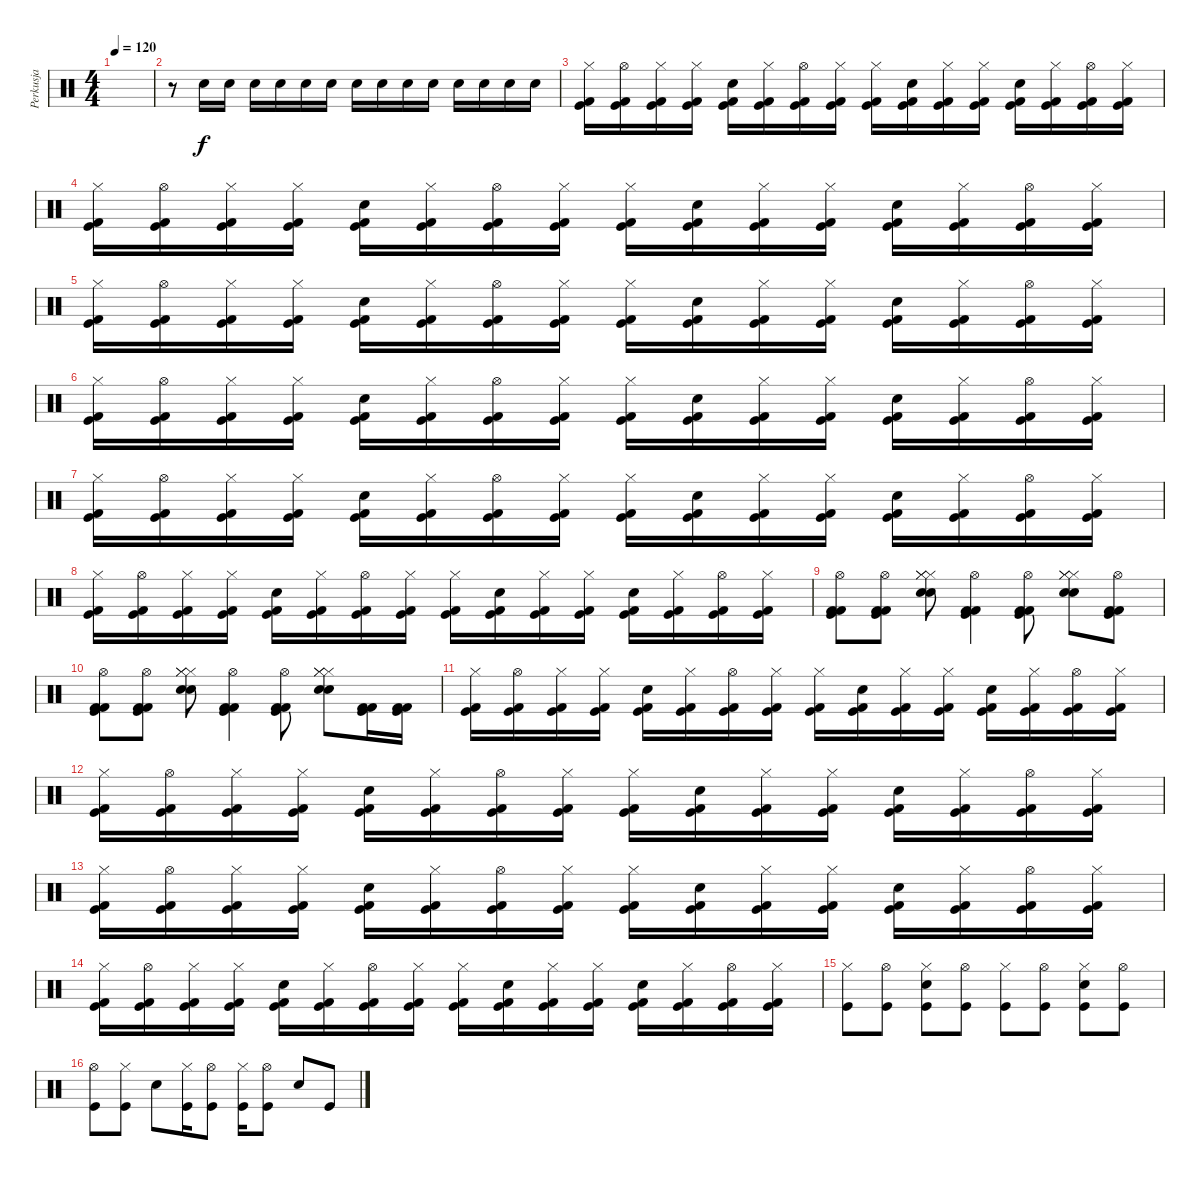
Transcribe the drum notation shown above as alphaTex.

\track ("Perkusja" "Perkusja") {instrument percussion}
\staff {score}
\articulation defaults
\ts (4 4)
\tempo 120
\clef neutral
\ks c
|
r.8 "Snare (hit) 2".16 "Snare (hit) 2".16 "Snare (hit) 2".16 "Snare (hit) 2".16 "Snare (hit) 2".16 "Snare (hit) 2".16 "Snare (hit) 2".16 "Snare (hit) 2".16 "Snare (hit) 2".16 "Snare (hit) 2".16 "Snare (hit) 2".16 "Snare (hit) 2".16 "Snare (hit) 2".16 "Snare (hit) 2".16 |
("Hi-Hat (closed)" "Kick (hit) 2" "Kick (hit)").16 ("Hi-Hat (open)" "Kick (hit) 2" "Kick (hit)").16 ("Hi-Hat (closed)" "Kick (hit) 2" "Kick (hit)").16 ("Hi-Hat (closed)" "Kick (hit) 2" "Kick (hit)").16 ("Snare (hit) 2" "Kick (hit) 2" "Kick (hit)").16 ("Hi-Hat (closed)" "Kick (hit) 2" "Kick (hit)").16 ("Hi-Hat (open)" "Kick (hit) 2" "Kick (hit)").16 ("Hi-Hat (closed)" "Kick (hit) 2" "Kick (hit)").16 ("Hi-Hat (closed)" "Kick (hit) 2" "Kick (hit)").16 ("Snare (hit) 2" "Kick (hit) 2" "Kick (hit)").16 ("Hi-Hat (closed)" "Kick (hit) 2" "Kick (hit)").16 ("Hi-Hat (closed)" "Kick (hit) 2" "Kick (hit)").16 ("Snare (hit) 2" "Kick (hit) 2" "Kick (hit)").16 ("Hi-Hat (closed)" "Kick (hit) 2" "Kick (hit)").16 ("Hi-Hat (open)" "Kick (hit) 2" "Kick (hit)").16 ("Hi-Hat (closed)" "Kick (hit) 2" "Kick (hit)").16 |
("Hi-Hat (closed)" "Kick (hit) 2" "Kick (hit)").16 ("Hi-Hat (open)" "Kick (hit) 2" "Kick (hit)").16 ("Hi-Hat (closed)" "Kick (hit) 2" "Kick (hit)").16 ("Hi-Hat (closed)" "Kick (hit) 2" "Kick (hit)").16 ("Snare (hit) 2" "Kick (hit) 2" "Kick (hit)").16 ("Hi-Hat (closed)" "Kick (hit) 2" "Kick (hit)").16 ("Hi-Hat (open)" "Kick (hit) 2" "Kick (hit)").16 ("Hi-Hat (closed)" "Kick (hit) 2" "Kick (hit)").16 ("Hi-Hat (closed)" "Kick (hit) 2" "Kick (hit)").16 ("Snare (hit) 2" "Kick (hit) 2" "Kick (hit)").16 ("Hi-Hat (closed)" "Kick (hit) 2" "Kick (hit)").16 ("Hi-Hat (closed)" "Kick (hit) 2" "Kick (hit)").16 ("Snare (hit) 2" "Kick (hit) 2" "Kick (hit)").16 ("Hi-Hat (closed)" "Kick (hit) 2" "Kick (hit)").16 ("Hi-Hat (open)" "Kick (hit) 2" "Kick (hit)").16 ("Hi-Hat (closed)" "Kick (hit) 2" "Kick (hit)").16 |
("Hi-Hat (closed)" "Kick (hit) 2" "Kick (hit)").16 ("Hi-Hat (open)" "Kick (hit) 2" "Kick (hit)").16 ("Hi-Hat (closed)" "Kick (hit) 2" "Kick (hit)").16 ("Hi-Hat (closed)" "Kick (hit) 2" "Kick (hit)").16 ("Snare (hit) 2" "Kick (hit) 2" "Kick (hit)").16 ("Hi-Hat (closed)" "Kick (hit) 2" "Kick (hit)").16 ("Hi-Hat (open)" "Kick (hit) 2" "Kick (hit)").16 ("Hi-Hat (closed)" "Kick (hit) 2" "Kick (hit)").16 ("Hi-Hat (closed)" "Kick (hit) 2" "Kick (hit)").16 ("Snare (hit) 2" "Kick (hit) 2" "Kick (hit)").16 ("Hi-Hat (closed)" "Kick (hit) 2" "Kick (hit)").16 ("Hi-Hat (closed)" "Kick (hit) 2" "Kick (hit)").16 ("Snare (hit) 2" "Kick (hit) 2" "Kick (hit)").16 ("Hi-Hat (closed)" "Kick (hit) 2" "Kick (hit)").16 ("Hi-Hat (open)" "Kick (hit) 2" "Kick (hit)").16 ("Hi-Hat (closed)" "Kick (hit) 2" "Kick (hit)").16 |
("Hi-Hat (closed)" "Kick (hit) 2" "Kick (hit)").16 ("Hi-Hat (open)" "Kick (hit) 2" "Kick (hit)").16 ("Hi-Hat (closed)" "Kick (hit) 2" "Kick (hit)").16 ("Hi-Hat (closed)" "Kick (hit) 2" "Kick (hit)").16 ("Snare (hit) 2" "Kick (hit) 2" "Kick (hit)").16 ("Hi-Hat (closed)" "Kick (hit) 2" "Kick (hit)").16 ("Hi-Hat (open)" "Kick (hit) 2" "Kick (hit)").16 ("Hi-Hat (closed)" "Kick (hit) 2" "Kick (hit)").16 ("Hi-Hat (closed)" "Kick (hit) 2" "Kick (hit)").16 ("Snare (hit) 2" "Kick (hit) 2" "Kick (hit)").16 ("Hi-Hat (closed)" "Kick (hit) 2" "Kick (hit)").16 ("Hi-Hat (closed)" "Kick (hit) 2" "Kick (hit)").16 ("Snare (hit) 2" "Kick (hit) 2" "Kick (hit)").16 ("Hi-Hat (closed)" "Kick (hit) 2" "Kick (hit)").16 ("Hi-Hat (open)" "Kick (hit) 2" "Kick (hit)").16 ("Hi-Hat (closed)" "Kick (hit) 2" "Kick (hit)").16 |
("Hi-Hat (closed)" "Kick (hit) 2" "Kick (hit)").16 ("Hi-Hat (open)" "Kick (hit) 2" "Kick (hit)").16 ("Hi-Hat (closed)" "Kick (hit) 2" "Kick (hit)").16 ("Hi-Hat (closed)" "Kick (hit) 2" "Kick (hit)").16 ("Snare (hit) 2" "Kick (hit) 2" "Kick (hit)").16 ("Hi-Hat (closed)" "Kick (hit) 2" "Kick (hit)").16 ("Hi-Hat (open)" "Kick (hit) 2" "Kick (hit)").16 ("Hi-Hat (closed)" "Kick (hit) 2" "Kick (hit)").16 ("Hi-Hat (closed)" "Kick (hit) 2" "Kick (hit)").16 ("Snare (hit) 2" "Kick (hit) 2" "Kick (hit)").16 ("Hi-Hat (closed)" "Kick (hit) 2" "Kick (hit)").16 ("Hi-Hat (closed)" "Kick (hit) 2" "Kick (hit)").16 ("Snare (hit) 2" "Kick (hit) 2" "Kick (hit)").16 ("Hi-Hat (closed)" "Kick (hit) 2" "Kick (hit)").16 ("Hi-Hat (open)" "Kick (hit) 2" "Kick (hit)").16 ("Hi-Hat (closed)" "Kick (hit) 2" "Kick (hit)").16 |
("Hi-Hat (closed)" "Kick (hit) 2" "Kick (hit)").16 ("Hi-Hat (open)" "Kick (hit) 2" "Kick (hit)").16 ("Hi-Hat (closed)" "Kick (hit) 2" "Kick (hit)").16 ("Hi-Hat (closed)" "Kick (hit) 2" "Kick (hit)").16 ("Snare (hit) 2" "Kick (hit) 2" "Kick (hit)").16 ("Hi-Hat (closed)" "Kick (hit) 2" "Kick (hit)").16 ("Hi-Hat (open)" "Kick (hit) 2" "Kick (hit)").16 ("Hi-Hat (closed)" "Kick (hit) 2" "Kick (hit)").16 ("Hi-Hat (closed)" "Kick (hit) 2" "Kick (hit)").16 ("Snare (hit) 2" "Kick (hit) 2" "Kick (hit)").16 ("Hi-Hat (closed)" "Kick (hit) 2" "Kick (hit)").16 ("Hi-Hat (closed)" "Kick (hit) 2" "Kick (hit)").16 ("Snare (hit) 2" "Kick (hit) 2" "Kick (hit)").16 ("Hi-Hat (closed)" "Kick (hit) 2" "Kick (hit)").16 ("Hi-Hat (open)" "Kick (hit) 2" "Kick (hit)").16 ("Hi-Hat (closed)" "Kick (hit) 2" "Kick (hit)").16 |
("Hi-Hat (open)" "Kick (hit) 2" "Kick (hit)" "Kick (hit) 2").8 ("Hi-Hat (open)" "Kick (hit) 2" "Kick (hit)" "Kick (hit) 2").8 ("Hi-Hat (closed)" "Hi-Hat (closed)" "Snare (hit) 2" "Snare (hit) 2" "Hi-Hat (closed)").8 ("Hi-Hat (open)" "Kick (hit) 2" "Kick (hit)" "Kick (hit) 2").4 ("Hi-Hat (open)" "Kick (hit) 2" "Kick (hit)" "Kick (hit) 2").8 ("Hi-Hat (closed)" "Hi-Hat (closed)" "Snare (hit) 2" "Snare (hit) 2" "Hi-Hat (closed)").8 ("Hi-Hat (open)" "Kick (hit) 2" "Kick (hit)" "Kick (hit) 2").8 |
("Hi-Hat (open)" "Kick (hit) 2" "Kick (hit)" "Kick (hit) 2").8 ("Hi-Hat (open)" "Kick (hit) 2" "Kick (hit)" "Kick (hit) 2").8 ("Hi-Hat (closed)" "Hi-Hat (closed)" "Snare (hit) 2" "Snare (hit) 2" "Hi-Hat (closed)").8 ("Hi-Hat (open)" "Kick (hit) 2" "Kick (hit)" "Kick (hit) 2").4 ("Hi-Hat (open)" "Kick (hit) 2" "Kick (hit)" "Kick (hit) 2").8 ("Hi-Hat (closed)" "Hi-Hat (closed)" "Snare (hit) 2" "Snare (hit) 2" "Hi-Hat (closed)").8 ("Kick (hit) 2" "Kick (hit)" "Kick (hit) 2").16 ("Kick (hit) 2" "Kick (hit)" "Kick (hit) 2").16 |
("Hi-Hat (closed)" "Kick (hit) 2" "Kick (hit)").16 ("Hi-Hat (open)" "Kick (hit) 2" "Kick (hit)").16 ("Hi-Hat (closed)" "Kick (hit) 2" "Kick (hit)").16 ("Hi-Hat (closed)" "Kick (hit) 2" "Kick (hit)").16 ("Snare (hit) 2" "Kick (hit) 2" "Kick (hit)").16 ("Hi-Hat (closed)" "Kick (hit) 2" "Kick (hit)").16 ("Hi-Hat (open)" "Kick (hit) 2" "Kick (hit)").16 ("Hi-Hat (closed)" "Kick (hit) 2" "Kick (hit)").16 ("Hi-Hat (closed)" "Kick (hit) 2" "Kick (hit)").16 ("Snare (hit) 2" "Kick (hit) 2" "Kick (hit)").16 ("Hi-Hat (closed)" "Kick (hit) 2" "Kick (hit)").16 ("Hi-Hat (closed)" "Kick (hit) 2" "Kick (hit)").16 ("Snare (hit) 2" "Kick (hit) 2" "Kick (hit)").16 ("Hi-Hat (closed)" "Kick (hit) 2" "Kick (hit)").16 ("Hi-Hat (open)" "Kick (hit) 2" "Kick (hit)").16 ("Hi-Hat (closed)" "Kick (hit) 2" "Kick (hit)").16 |
("Hi-Hat (closed)" "Kick (hit) 2" "Kick (hit)").16 ("Hi-Hat (open)" "Kick (hit) 2" "Kick (hit)").16 ("Hi-Hat (closed)" "Kick (hit) 2" "Kick (hit)").16 ("Hi-Hat (closed)" "Kick (hit) 2" "Kick (hit)").16 ("Snare (hit) 2" "Kick (hit) 2" "Kick (hit)").16 ("Hi-Hat (closed)" "Kick (hit) 2" "Kick (hit)").16 ("Hi-Hat (open)" "Kick (hit) 2" "Kick (hit)").16 ("Hi-Hat (closed)" "Kick (hit) 2" "Kick (hit)").16 ("Hi-Hat (closed)" "Kick (hit) 2" "Kick (hit)").16 ("Snare (hit) 2" "Kick (hit) 2" "Kick (hit)").16 ("Hi-Hat (closed)" "Kick (hit) 2" "Kick (hit)").16 ("Hi-Hat (closed)" "Kick (hit) 2" "Kick (hit)").16 ("Snare (hit) 2" "Kick (hit) 2" "Kick (hit)").16 ("Hi-Hat (closed)" "Kick (hit) 2" "Kick (hit)").16 ("Hi-Hat (open)" "Kick (hit) 2" "Kick (hit)").16 ("Hi-Hat (closed)" "Kick (hit) 2" "Kick (hit)").16 |
("Hi-Hat (closed)" "Kick (hit) 2" "Kick (hit)").16 ("Hi-Hat (open)" "Kick (hit) 2" "Kick (hit)").16 ("Hi-Hat (closed)" "Kick (hit) 2" "Kick (hit)").16 ("Hi-Hat (closed)" "Kick (hit) 2" "Kick (hit)").16 ("Snare (hit) 2" "Kick (hit) 2" "Kick (hit)").16 ("Hi-Hat (closed)" "Kick (hit) 2" "Kick (hit)").16 ("Hi-Hat (open)" "Kick (hit) 2" "Kick (hit)").16 ("Hi-Hat (closed)" "Kick (hit) 2" "Kick (hit)").16 ("Hi-Hat (closed)" "Kick (hit) 2" "Kick (hit)").16 ("Snare (hit) 2" "Kick (hit) 2" "Kick (hit)").16 ("Hi-Hat (closed)" "Kick (hit) 2" "Kick (hit)").16 ("Hi-Hat (closed)" "Kick (hit) 2" "Kick (hit)").16 ("Snare (hit) 2" "Kick (hit) 2" "Kick (hit)").16 ("Hi-Hat (closed)" "Kick (hit) 2" "Kick (hit)").16 ("Hi-Hat (open)" "Kick (hit) 2" "Kick (hit)").16 ("Hi-Hat (closed)" "Kick (hit) 2" "Kick (hit)").16 |
("Hi-Hat (closed)" "Kick (hit) 2" "Kick (hit)").16 ("Hi-Hat (open)" "Kick (hit) 2" "Kick (hit)").16 ("Hi-Hat (closed)" "Kick (hit) 2" "Kick (hit)").16 ("Hi-Hat (closed)" "Kick (hit) 2" "Kick (hit)").16 ("Snare (hit) 2" "Kick (hit) 2" "Kick (hit)").16 ("Hi-Hat (closed)" "Kick (hit) 2" "Kick (hit)").16 ("Hi-Hat (open)" "Kick (hit) 2" "Kick (hit)").16 ("Hi-Hat (closed)" "Kick (hit) 2" "Kick (hit)").16 ("Hi-Hat (closed)" "Kick (hit) 2" "Kick (hit)").16 ("Snare (hit) 2" "Kick (hit) 2" "Kick (hit)").16 ("Hi-Hat (closed)" "Kick (hit) 2" "Kick (hit)").16 ("Hi-Hat (closed)" "Kick (hit) 2" "Kick (hit)").16 ("Snare (hit) 2" "Kick (hit) 2" "Kick (hit)").16 ("Hi-Hat (closed)" "Kick (hit) 2" "Kick (hit)").16 ("Hi-Hat (open)" "Kick (hit) 2" "Kick (hit)").16 ("Hi-Hat (closed)" "Kick (hit) 2" "Kick (hit)").16 |
("Hi-Hat (closed)" "Kick (hit)").8 ("Hi-Hat (open)" "Kick (hit)").8 ("Hi-Hat (closed)" "Snare (hit) 2" "Kick (hit)").8 ("Hi-Hat (open)" "Kick (hit)").8 ("Hi-Hat (closed)" "Kick (hit)").8 ("Hi-Hat (open)" "Kick (hit)").8 ("Hi-Hat (closed)" "Snare (hit) 2" "Kick (hit)").8 ("Hi-Hat (open)" "Kick (hit)").8 |
("Hi-Hat (open)" "Kick (hit)").8 ("Hi-Hat (closed)" "Kick (hit)").8 "Snare (hit) 2".8 ("Hi-Hat (closed)" "Kick (hit)").16 ("Hi-Hat (open)" "Kick (hit)").8 ("Hi-Hat (closed)" "Kick (hit)").16 ("Hi-Hat (open)" "Kick (hit)").8 "Snare (hit) 2".8 "Kick (hit)".8
